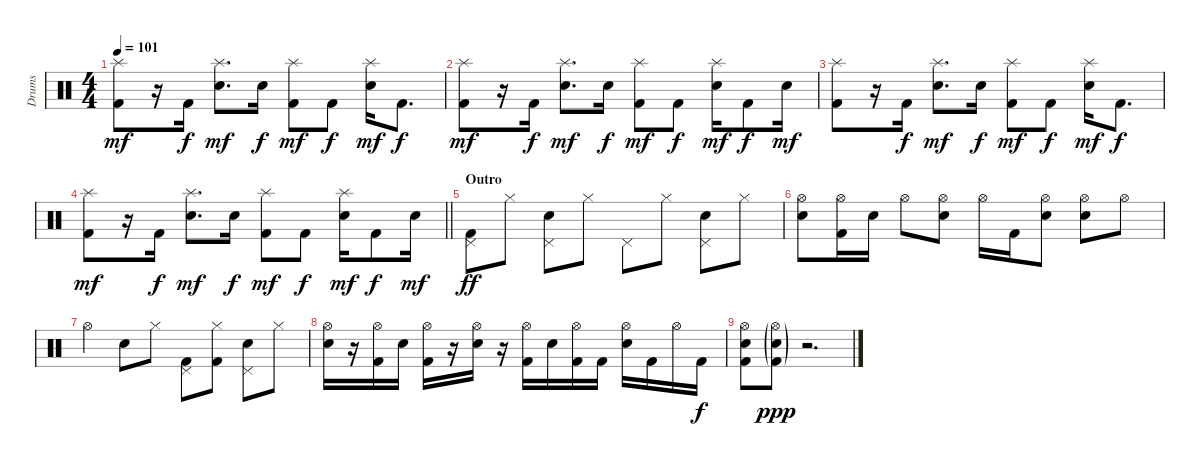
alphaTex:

\track ("Drums" "Drums") {instrument percussion}
\staff {score}
\articulation defaults
\ts (4 4)
\tempo 101
\clef neutral
\ks c
("Splash (hit)" "Kick (hit) 2").8{dy mf} r.16 "Kick (hit) 2".16{dy f} ("Splash (hit)" "Electric Snare (hit)").8{d dy mf} "Electric Snare (hit)".16{dy f} ("Splash (hit)" "Kick (hit) 2").8{dy mf} "Kick (hit) 2".8{dy f} ("Splash (hit)" "Electric Snare (hit)").16{dy mf} "Kick (hit) 2".8{d dy f} |
("Splash (hit)" "Kick (hit) 2").8{dy mf} r.16 "Kick (hit) 2".16{dy f} ("Splash (hit)" "Electric Snare (hit)").8{d dy mf} "Electric Snare (hit)".16{dy f} ("Splash (hit)" "Kick (hit) 2").8{dy mf} "Kick (hit) 2".8{dy f} ("Splash (hit)" "Electric Snare (hit)").16{dy mf} "Kick (hit) 2".8{dy f} "Electric Snare (hit)".16{dy mf} |
("Splash (hit)" "Kick (hit) 2").8 r.16 "Kick (hit) 2".16{dy f} ("Splash (hit)" "Electric Snare (hit)").8{d dy mf} "Electric Snare (hit)".16{dy f} ("Splash (hit)" "Kick (hit) 2").8{dy mf} "Kick (hit) 2".8{dy f} ("Splash (hit)" "Electric Snare (hit)").16{dy mf} "Kick (hit) 2".8{d dy f} |
\barLineRight lightlight
("Splash (hit)" "Kick (hit) 2").8{dy mf} r.16 "Kick (hit) 2".16{dy f} ("Splash (hit)" "Electric Snare (hit)").8{d dy mf} "Electric Snare (hit)".16{dy f} ("Splash (hit)" "Kick (hit) 2").8{dy mf} "Kick (hit) 2".8{dy f} ("Splash (hit)" "Electric Snare (hit)").16{dy mf} "Kick (hit) 2".8{dy f} "Electric Snare (hit)".16{dy mf} |
\section ("" "Outro")
("Pedal Hi-Hat (hit)" "Kick (hit) 2").8{dy ff} "Hi-Hat (closed)".8 ("Pedal Hi-Hat (hit)" "Electric Snare (hit)").8 "Hi-Hat (closed)".8 "Pedal Hi-Hat (hit)".8 "Hi-Hat (closed)".8 ("Pedal Hi-Hat (hit)" "Electric Snare (hit)").8 "Hi-Hat (closed)".8 |
("Hi-Hat (open)" "Electric Snare (hit)").8 ("Hi-Hat (open)" "Kick (hit) 2").16 "Electric Snare (hit)".16 "Hi-Hat (open)".8 ("Hi-Hat (open)" "Electric Snare (hit)").8 "Hi-Hat (open)".16 "Kick (hit) 2".16 ("Hi-Hat (open)" "Electric Snare (hit)").8 ("Hi-Hat (open)" "Electric Snare (hit)").8 "Hi-Hat (open)".8 |
"Hi-Hat (open)".4 "Electric Snare (hit)".8 "Hi-Hat (closed)".8 ("Pedal Hi-Hat (hit)" "Kick (hit) 2").8 ("Hi-Hat (closed)" "Kick (hit) 2").8 ("Pedal Hi-Hat (hit)" "Electric Snare (hit)").8 "Hi-Hat (closed)".8 |
("Hi-Hat (open)" "Electric Snare (hit)").16 r.16 ("Hi-Hat (open)" "Kick (hit) 2").16 "Electric Snare (hit)".16 ("Hi-Hat (open)" "Kick (hit) 2").16 r.16 ("Hi-Hat (open)" "Electric Snare (hit)").16 r.16 ("Hi-Hat (open)" "Kick (hit) 2").16 "Electric Snare (hit)".16 ("Hi-Hat (open)" "Kick (hit) 2").16 "Kick (hit) 2".16 ("Hi-Hat (open)" "Electric Snare (hit)").16 "Kick (hit) 2".16 "Hi-Hat (open)".16 "Kick (hit) 2".16{dy f} |
("Hi-Hat (open)" "Electric Snare (hit)" "Kick (hit) 2").8 ("Hi-Hat (open)"{g} "Electric Snare (hit)"{g} "Kick (hit) 2"{g}).8{dy ppp} r.2{d}
